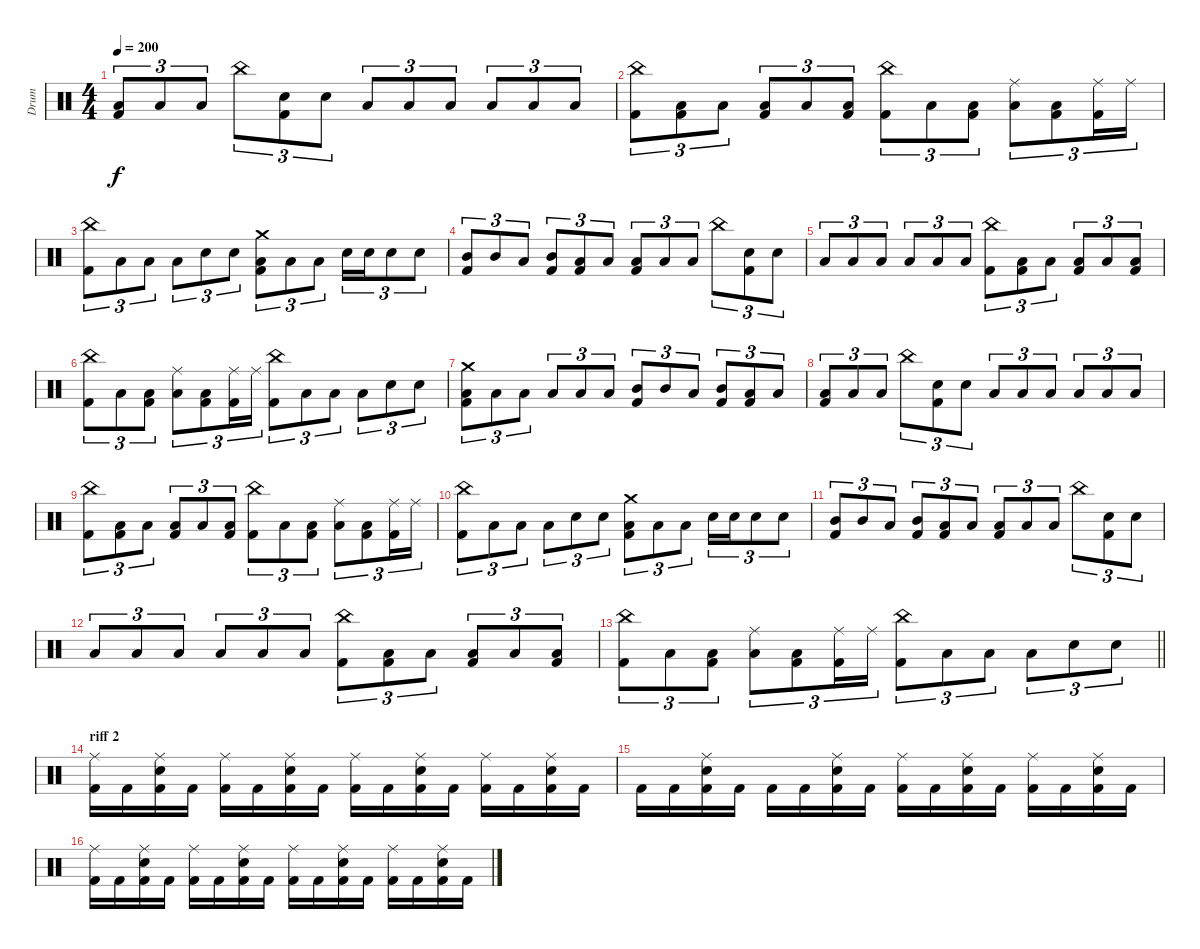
\track ("Drum" "Drum") {instrument percussion}
\staff {score}
\articulation defaults
\ts (4 4)
\tempo 200
\clef neutral
\ks c
("Low Tom (hit)" "Kick (hit) 2").8{tu (3 2) dy f} "Low Floor Tom (hit)".8{tu (3 2)} "Low Floor Tom (hit)".8{tu (3 2)} "China (hit)".8{tu (3 2)} ("Electric Snare (hit)" "Kick (hit) 2").8{tu (3 2)} "Electric Snare (hit)".8{tu (3 2)} "Low Floor Tom (hit)".8{tu (3 2)} "Low Floor Tom (hit)".8{tu (3 2)} "Low Floor Tom (hit)".8{tu (3 2)} "Low Tom (hit)".8{tu (3 2)} "Low Tom (hit)".8{tu (3 2)} "Low Tom (hit)".8{tu (3 2)} |
("China (hit)" "Kick (hit) 2").8{tu (3 2)} ("Low Floor Tom (hit)" "Kick (hit) 2").8{tu (3 2)} "Low Floor Tom (hit)".8{tu (3 2)} ("Low Tom (hit)" "Kick (hit) 2").8{tu (3 2)} "Low Floor Tom (hit)".8{tu (3 2)} ("Low Floor Tom (hit)" "Kick (hit) 2").8{tu (3 2)} ("China (hit)" "Kick (hit) 2").8{tu (3 2)} "Low Floor Tom (hit)".8{tu (3 2)} ("Low Floor Tom (hit)" "Kick (hit) 2").8{tu (3 2)} ("Ride (middle)" "Low Floor Tom (hit)").8{tu (3 2)} ("Low Floor Tom (hit)" "Kick (hit) 2").8{tu (3 2)} ("Ride (middle)" "Kick (hit) 2").16{tu (3 2)} "Ride (middle)".16{tu (3 2)} |
("China (hit)" "Kick (hit) 2").8{tu (3 2)} "Low Tom (hit)".8{tu (3 2)} "Low Tom (hit)".8{tu (3 2)} "Low Tom (hit)".8{tu (3 2)} "Electric Snare (hit)".8{tu (3 2)} "Electric Snare (hit)".8{tu (3 2)} ("Crash medium (hit)" "Low Floor Tom (hit)" "Kick (hit) 2").8{tu (3 2)} "Low Floor Tom (hit)".8{tu (3 2)} "Low Floor Tom (hit)".8{tu (3 2)} "Electric Snare (hit)".16{tu (3 2)} "Electric Snare (hit)".16{tu (3 2)} "Electric Snare (hit)".8{tu (3 2)} "Electric Snare (hit)".8{tu (3 2)} |
("Mid Tom (hit)" "Kick (hit) 2").8{tu (3 2)} "Mid Tom (hit)".8{tu (3 2)} "Low Tom (hit)".8{tu (3 2)} ("Mid Tom (hit)" "Kick (hit) 2").8{tu (3 2)} ("Low Tom (hit)" "Kick (hit) 2").8{tu (3 2)} "Low Tom (hit)".8{tu (3 2)} ("Low Tom (hit)" "Kick (hit) 2").8{tu (3 2)} "Low Floor Tom (hit)".8{tu (3 2)} "Low Floor Tom (hit)".8{tu (3 2)} "China (hit)".8{tu (3 2)} ("Electric Snare (hit)" "Kick (hit) 2").8{tu (3 2)} "Electric Snare (hit)".8{tu (3 2)} |
"Low Floor Tom (hit)".8{tu (3 2)} "Low Floor Tom (hit)".8{tu (3 2)} "Low Floor Tom (hit)".8{tu (3 2)} "Low Tom (hit)".8{tu (3 2)} "Low Tom (hit)".8{tu (3 2)} "Low Tom (hit)".8{tu (3 2)} ("China (hit)" "Kick (hit) 2").8{tu (3 2)} ("Low Floor Tom (hit)" "Kick (hit) 2").8{tu (3 2)} "Low Floor Tom (hit)".8{tu (3 2)} ("Low Tom (hit)" "Kick (hit) 2").8{tu (3 2)} "Low Floor Tom (hit)".8{tu (3 2)} ("Low Floor Tom (hit)" "Kick (hit) 2").8{tu (3 2)} |
("China (hit)" "Kick (hit) 2").8{tu (3 2)} "Low Floor Tom (hit)".8{tu (3 2)} ("Low Floor Tom (hit)" "Kick (hit) 2").8{tu (3 2)} ("Ride (middle)" "Low Floor Tom (hit)").8{tu (3 2)} ("Low Floor Tom (hit)" "Kick (hit) 2").8{tu (3 2)} ("Ride (middle)" "Kick (hit) 2").16{tu (3 2)} "Ride (middle)".16{tu (3 2)} ("China (hit)" "Kick (hit) 2").8{tu (3 2)} "Low Tom (hit)".8{tu (3 2)} "Low Tom (hit)".8{tu (3 2)} "Low Tom (hit)".8{tu (3 2)} "Electric Snare (hit)".8{tu (3 2)} "Electric Snare (hit)".8{tu (3 2)} |
("Crash medium (hit)" "Low Floor Tom (hit)" "Kick (hit) 2").8{tu (3 2)} "Low Floor Tom (hit)".8{tu (3 2)} "Low Floor Tom (hit)".8{tu (3 2)} "Low Floor Tom (hit)".8{tu (3 2)} "Low Floor Tom (hit)".8{tu (3 2)} "Low Floor Tom (hit)".8{tu (3 2)} ("Mid Tom (hit)" "Kick (hit) 2").8{tu (3 2)} "Mid Tom (hit)".8{tu (3 2)} "Low Tom (hit)".8{tu (3 2)} ("Mid Tom (hit)" "Kick (hit) 2").8{tu (3 2)} ("Low Tom (hit)" "Kick (hit) 2").8{tu (3 2)} "Low Tom (hit)".8{tu (3 2)} |
("Low Tom (hit)" "Kick (hit) 2").8{tu (3 2)} "Low Floor Tom (hit)".8{tu (3 2)} "Low Floor Tom (hit)".8{tu (3 2)} "China (hit)".8{tu (3 2)} ("Electric Snare (hit)" "Kick (hit) 2").8{tu (3 2)} "Electric Snare (hit)".8{tu (3 2)} "Low Floor Tom (hit)".8{tu (3 2)} "Low Floor Tom (hit)".8{tu (3 2)} "Low Floor Tom (hit)".8{tu (3 2)} "Low Tom (hit)".8{tu (3 2)} "Low Tom (hit)".8{tu (3 2)} "Low Tom (hit)".8{tu (3 2)} |
("China (hit)" "Kick (hit) 2").8{tu (3 2)} ("Low Floor Tom (hit)" "Kick (hit) 2").8{tu (3 2)} "Low Floor Tom (hit)".8{tu (3 2)} ("Low Tom (hit)" "Kick (hit) 2").8{tu (3 2)} "Low Floor Tom (hit)".8{tu (3 2)} ("Low Floor Tom (hit)" "Kick (hit) 2").8{tu (3 2)} ("China (hit)" "Kick (hit) 2").8{tu (3 2)} "Low Floor Tom (hit)".8{tu (3 2)} ("Low Floor Tom (hit)" "Kick (hit) 2").8{tu (3 2)} ("Ride (middle)" "Low Floor Tom (hit)").8{tu (3 2)} ("Low Floor Tom (hit)" "Kick (hit) 2").8{tu (3 2)} ("Ride (middle)" "Kick (hit) 2").16{tu (3 2)} "Ride (middle)".16{tu (3 2)} |
("China (hit)" "Kick (hit) 2").8{tu (3 2)} "Low Tom (hit)".8{tu (3 2)} "Low Tom (hit)".8{tu (3 2)} "Low Tom (hit)".8{tu (3 2)} "Electric Snare (hit)".8{tu (3 2)} "Electric Snare (hit)".8{tu (3 2)} ("Crash medium (hit)" "Low Floor Tom (hit)" "Kick (hit) 2").8{tu (3 2)} "Low Floor Tom (hit)".8{tu (3 2)} "Low Floor Tom (hit)".8{tu (3 2)} "Electric Snare (hit)".16{tu (3 2)} "Electric Snare (hit)".16{tu (3 2)} "Electric Snare (hit)".8{tu (3 2)} "Electric Snare (hit)".8{tu (3 2)} |
("Mid Tom (hit)" "Kick (hit) 2").8{tu (3 2)} "Mid Tom (hit)".8{tu (3 2)} "Low Tom (hit)".8{tu (3 2)} ("Mid Tom (hit)" "Kick (hit) 2").8{tu (3 2)} ("Low Tom (hit)" "Kick (hit) 2").8{tu (3 2)} "Low Tom (hit)".8{tu (3 2)} ("Low Tom (hit)" "Kick (hit) 2").8{tu (3 2)} "Low Floor Tom (hit)".8{tu (3 2)} "Low Floor Tom (hit)".8{tu (3 2)} "China (hit)".8{tu (3 2)} ("Electric Snare (hit)" "Kick (hit) 2").8{tu (3 2)} "Electric Snare (hit)".8{tu (3 2)} |
"Low Floor Tom (hit)".8{tu (3 2)} "Low Floor Tom (hit)".8{tu (3 2)} "Low Floor Tom (hit)".8{tu (3 2)} "Low Tom (hit)".8{tu (3 2)} "Low Tom (hit)".8{tu (3 2)} "Low Tom (hit)".8{tu (3 2)} ("China (hit)" "Kick (hit) 2").8{tu (3 2)} ("Low Floor Tom (hit)" "Kick (hit) 2").8{tu (3 2)} "Low Floor Tom (hit)".8{tu (3 2)} ("Low Tom (hit)" "Kick (hit) 2").8{tu (3 2)} "Low Floor Tom (hit)".8{tu (3 2)} ("Low Floor Tom (hit)" "Kick (hit) 2").8{tu (3 2)} |
\barLineRight lightlight
("China (hit)" "Kick (hit) 2").8{tu (3 2)} "Low Floor Tom (hit)".8{tu (3 2)} ("Low Floor Tom (hit)" "Kick (hit) 2").8{tu (3 2)} ("Ride (middle)" "Low Floor Tom (hit)").8{tu (3 2)} ("Low Floor Tom (hit)" "Kick (hit) 2").8{tu (3 2)} ("Ride (middle)" "Kick (hit) 2").16{tu (3 2)} "Ride (middle)".16{tu (3 2)} ("China (hit)" "Kick (hit) 2").8{tu (3 2)} "Low Tom (hit)".8{tu (3 2)} "Low Tom (hit)".8{tu (3 2)} "Low Tom (hit)".8{tu (3 2)} "Electric Snare (hit)".8{tu (3 2)} "Electric Snare (hit)".8{tu (3 2)} |
\section ("" "riff 2")
("Ride (middle)" "Kick (hit) 2").16 "Kick (hit) 2".16 ("Ride (middle)" "Electric Snare (hit)" "Kick (hit) 2").16 "Kick (hit) 2".16 ("Ride (middle)" "Kick (hit) 2").16 "Kick (hit) 2".16 ("Ride (middle)" "Electric Snare (hit)" "Kick (hit) 2").16 "Kick (hit) 2".16 ("Ride (middle)" "Kick (hit) 2").16 "Kick (hit) 2".16 ("Ride (middle)" "Electric Snare (hit)" "Kick (hit) 2").16 "Kick (hit) 2".16 ("Ride (middle)" "Kick (hit) 2").16 "Kick (hit) 2".16 ("Ride (middle)" "Electric Snare (hit)" "Kick (hit) 2").16 "Kick (hit) 2".16 |
"Kick (hit) 2".16 "Kick (hit) 2".16 ("Ride (middle)" "Electric Snare (hit)" "Kick (hit) 2").16 "Kick (hit) 2".16 "Kick (hit) 2".16 "Kick (hit) 2".16 ("Ride (middle)" "Electric Snare (hit)" "Kick (hit) 2").16 "Kick (hit) 2".16 ("Ride (middle)" "Kick (hit) 2").16 "Kick (hit) 2".16 ("Ride (middle)" "Electric Snare (hit)" "Kick (hit) 2").16 "Kick (hit) 2".16 ("Ride (middle)" "Kick (hit) 2").16 "Kick (hit) 2".16 ("Ride (middle)" "Electric Snare (hit)" "Kick (hit) 2").16 "Kick (hit) 2".16 |
("Ride (middle)" "Kick (hit) 2").16 "Kick (hit) 2".16 ("Ride (middle)" "Electric Snare (hit)" "Kick (hit) 2").16 "Kick (hit) 2".16 ("Ride (middle)" "Kick (hit) 2").16 "Kick (hit) 2".16 ("Ride (middle)" "Electric Snare (hit)" "Kick (hit) 2").16 "Kick (hit) 2".16 ("Ride (middle)" "Kick (hit) 2").16 "Kick (hit) 2".16 ("Ride (middle)" "Electric Snare (hit)" "Kick (hit) 2").16 "Kick (hit) 2".16 ("Ride (middle)" "Kick (hit) 2").16 "Kick (hit) 2".16 ("Ride (middle)" "Electric Snare (hit)" "Kick (hit) 2").16 "Kick (hit) 2".16
